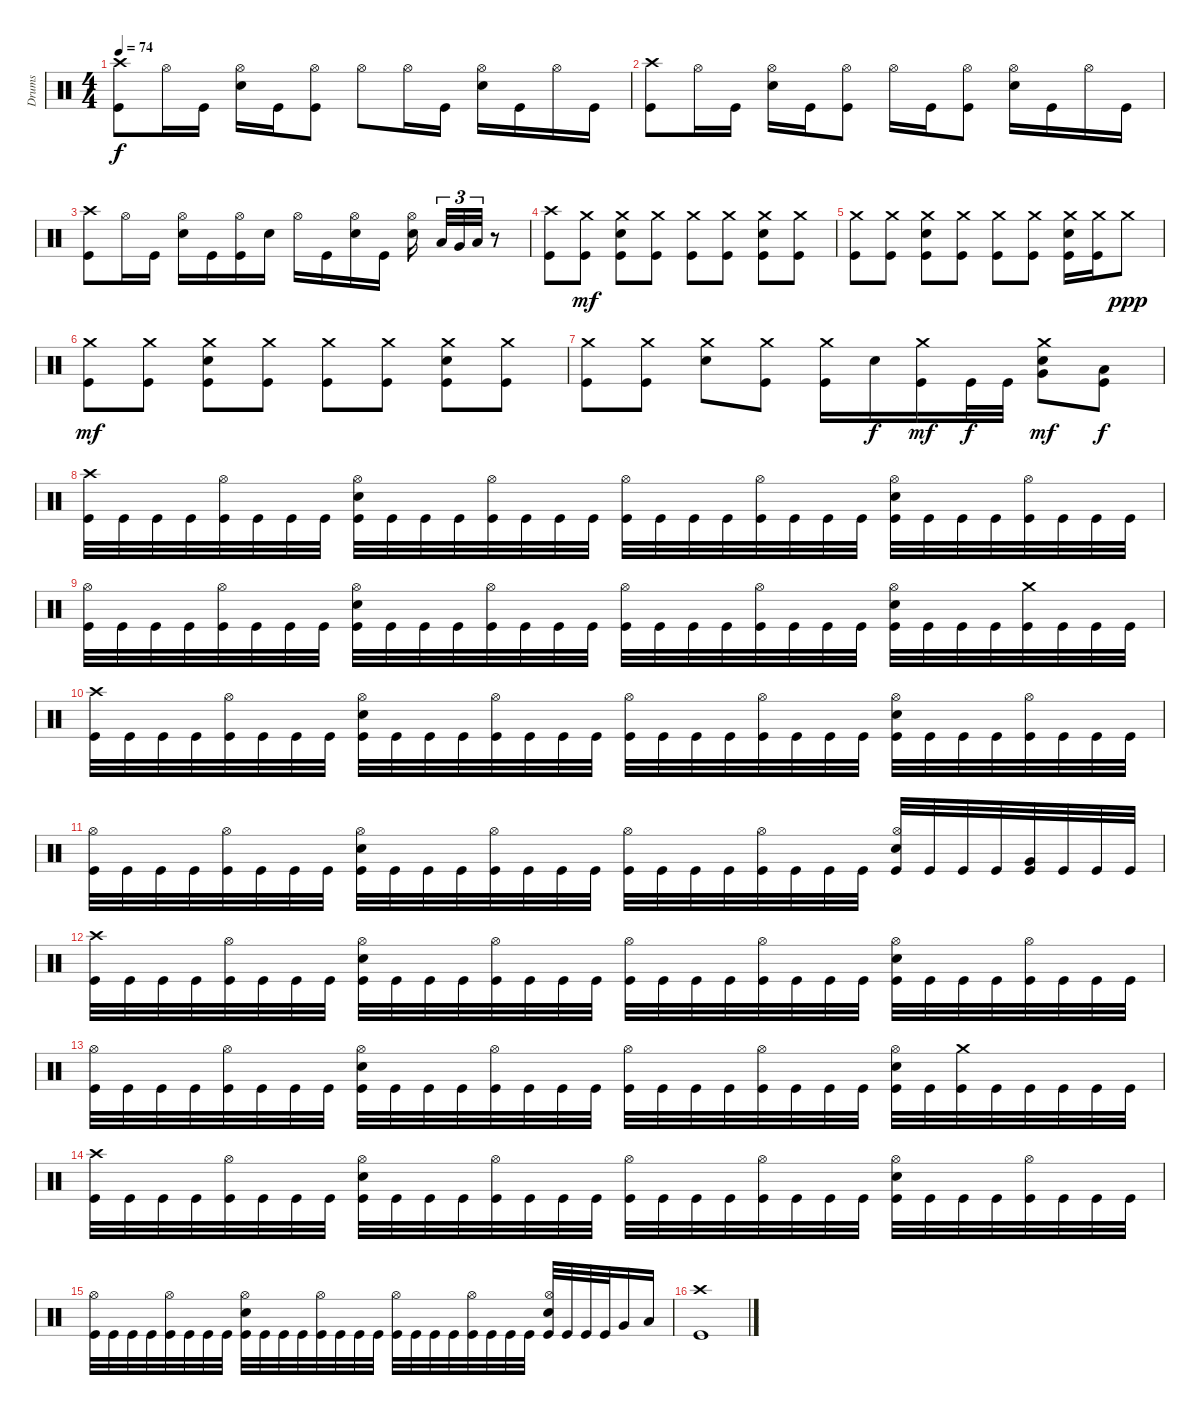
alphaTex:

\track ("Drums" "Drums") {instrument percussion}
\staff {score}
\articulation defaults
\ts (4 4)
\tempo 74
\clef neutral
\ks c
("Crash high (hit)" "Kick (hit)").8{dy f} "Hi-Hat (open)".16 "Kick (hit)".16 ("Hi-Hat (open)" "Snare (hit) 2").16 "Kick (hit)".16 ("Hi-Hat (open)" "Kick (hit)").8 "Hi-Hat (open)".8 "Hi-Hat (open)".16 "Kick (hit)".16 ("Hi-Hat (open)" "Snare (hit) 2").16 "Kick (hit)".16 "Hi-Hat (open)".16 "Kick (hit)".16 |
("Crash high (hit)" "Kick (hit)").8 "Hi-Hat (open)".16 "Kick (hit)".16 ("Hi-Hat (open)" "Snare (hit) 2").16 "Kick (hit)".16 ("Hi-Hat (open)" "Kick (hit)").8 "Hi-Hat (open)".16 "Kick (hit)".16 ("Hi-Hat (open)" "Kick (hit)").8 ("Hi-Hat (open)" "Snare (hit) 2").16 "Kick (hit)".16 "Hi-Hat (open)".16 "Kick (hit)".16 |
("Crash high (hit)" "Kick (hit)").8 "Hi-Hat (open)".16 "Kick (hit)".16 ("Hi-Hat (open)" "Snare (hit) 2").16 "Kick (hit)".16 ("Hi-Hat (open)" "Kick (hit)").16 "Snare (hit) 2".16 "Hi-Hat (open)".16 "Kick (hit)".16 ("Hi-Hat (open)" "Snare (hit) 2").16 "Kick (hit)".16 ("Hi-Hat (open)" "Snare (hit) 2").16 "Low Tom (hit)".32{tu (3 2)} "Very Low Tom (hit)".32{tu (3 2)} "Low Tom (hit)".32{tu (3 2)} r.8 |
\section ("" "")
("Crash high (hit)" "Kick (hit)").8 ("Crash medium (hit)" "Kick (hit)").8{dy mf} ("Crash medium (hit)" "Snare (hit) 2" "Kick (hit)").8 ("Crash medium (hit)" "Kick (hit)").8 ("Crash medium (hit)" "Kick (hit)").8 ("Crash medium (hit)" "Kick (hit)").8 ("Crash medium (hit)" "Snare (hit) 2" "Kick (hit)").8 ("Crash medium (hit)" "Kick (hit)").8 |
("Crash medium (hit)" "Kick (hit)").8 ("Crash medium (hit)" "Kick (hit)").8 ("Crash medium (hit)" "Snare (hit) 2" "Kick (hit)").8 ("Crash medium (hit)" "Kick (hit)").8 ("Crash medium (hit)" "Kick (hit)").8 ("Crash medium (hit)" "Kick (hit)").8 ("Crash medium (hit)" "Snare (hit) 2" "Kick (hit)").16 ("Crash medium (hit)" "Kick (hit)").16 "Crash medium (hit)".8{dy ppp} |
("Crash medium (hit)" "Kick (hit)").8{dy mf} ("Crash medium (hit)" "Kick (hit)").8 ("Crash medium (hit)" "Snare (hit) 2" "Kick (hit)").8 ("Crash medium (hit)" "Kick (hit)").8 ("Crash medium (hit)" "Kick (hit)").8 ("Crash medium (hit)" "Kick (hit)").8 ("Crash medium (hit)" "Snare (hit) 2" "Kick (hit)").8 ("Crash medium (hit)" "Kick (hit)").8 |
("Crash medium (hit)" "Kick (hit)").8 ("Crash medium (hit)" "Kick (hit)").8 ("Crash medium (hit)" "Snare (hit) 2").8 ("Crash medium (hit)" "Kick (hit)").8 ("Crash medium (hit)" "Kick (hit)").16 "Snare (hit) 2".16{dy f} ("Crash medium (hit)" "Kick (hit)").16{dy mf} "Kick (hit)".32{dy f} "Kick (hit)".32 ("Crash medium (hit)" "Very Low Tom (hit)" "Snare (hit) 2").8{dy mf} ("Low Floor Tom (hit)" "Kick (hit)").8{dy f} |
\section ("" "")
("Crash high (hit)" "Kick (hit)").32 "Kick (hit)".32 "Kick (hit)".32 "Kick (hit)".32 ("Hi-Hat (open)" "Kick (hit)").32 "Kick (hit)".32 "Kick (hit)".32 "Kick (hit)".32 ("Hi-Hat (open)" "Snare (hit) 2" "Kick (hit)").32 "Kick (hit)".32 "Kick (hit)".32 "Kick (hit)".32 ("Hi-Hat (open)" "Kick (hit)").32 "Kick (hit)".32 "Kick (hit)".32 "Kick (hit)".32 ("Hi-Hat (open)" "Kick (hit)").32 "Kick (hit)".32 "Kick (hit)".32 "Kick (hit)".32 ("Hi-Hat (open)" "Kick (hit)").32 "Kick (hit)".32 "Kick (hit)".32 "Kick (hit)".32 ("Hi-Hat (open)" "Snare (hit) 2" "Kick (hit)").32 "Kick (hit)".32 "Kick (hit)".32 "Kick (hit)".32 ("Hi-Hat (open)" "Kick (hit)").32 "Kick (hit)".32 "Kick (hit)".32 "Kick (hit)".32 |
("Hi-Hat (open)" "Kick (hit)").32 "Kick (hit)".32 "Kick (hit)".32 "Kick (hit)".32 ("Hi-Hat (open)" "Kick (hit)").32 "Kick (hit)".32 "Kick (hit)".32 "Kick (hit)".32 ("Hi-Hat (open)" "Snare (hit) 2" "Kick (hit)").32 "Kick (hit)".32 "Kick (hit)".32 "Kick (hit)".32 ("Hi-Hat (open)" "Kick (hit)").32 "Kick (hit)".32 "Kick (hit)".32 "Kick (hit)".32 ("Hi-Hat (open)" "Kick (hit)").32 "Kick (hit)".32 "Kick (hit)".32 "Kick (hit)".32 ("Hi-Hat (open)" "Kick (hit)").32 "Kick (hit)".32 "Kick (hit)".32 "Kick (hit)".32 ("Hi-Hat (open)" "Snare (hit) 2" "Kick (hit)").32 "Kick (hit)".32 "Kick (hit)".32 "Kick (hit)".32 ("Crash medium (hit)" "Kick (hit)").32 "Kick (hit)".32 "Kick (hit)".32 "Kick (hit)".32 |
("Crash high (hit)" "Kick (hit)").32 "Kick (hit)".32 "Kick (hit)".32 "Kick (hit)".32 ("Hi-Hat (open)" "Kick (hit)").32 "Kick (hit)".32 "Kick (hit)".32 "Kick (hit)".32 ("Hi-Hat (open)" "Snare (hit) 2" "Kick (hit)").32 "Kick (hit)".32 "Kick (hit)".32 "Kick (hit)".32 ("Hi-Hat (open)" "Kick (hit)").32 "Kick (hit)".32 "Kick (hit)".32 "Kick (hit)".32 ("Hi-Hat (open)" "Kick (hit)").32 "Kick (hit)".32 "Kick (hit)".32 "Kick (hit)".32 ("Hi-Hat (open)" "Kick (hit)").32 "Kick (hit)".32 "Kick (hit)".32 "Kick (hit)".32 ("Hi-Hat (open)" "Snare (hit) 2" "Kick (hit)").32 "Kick (hit)".32 "Kick (hit)".32 "Kick (hit)".32 ("Hi-Hat (open)" "Kick (hit)").32 "Kick (hit)".32 "Kick (hit)".32 "Kick (hit)".32 |
("Hi-Hat (open)" "Kick (hit)").32 "Kick (hit)".32 "Kick (hit)".32 "Kick (hit)".32 ("Hi-Hat (open)" "Kick (hit)").32 "Kick (hit)".32 "Kick (hit)".32 "Kick (hit)".32 ("Hi-Hat (open)" "Snare (hit) 2" "Kick (hit)").32 "Kick (hit)".32 "Kick (hit)".32 "Kick (hit)".32 ("Hi-Hat (open)" "Kick (hit)").32 "Kick (hit)".32 "Kick (hit)".32 "Kick (hit)".32 ("Hi-Hat (open)" "Kick (hit)").32 "Kick (hit)".32 "Kick (hit)".32 "Kick (hit)".32 ("Hi-Hat (open)" "Kick (hit)").32 "Kick (hit)".32 "Kick (hit)".32 "Kick (hit)".32 ("Hi-Hat (open)" "Snare (hit) 2" "Kick (hit)").32 "Kick (hit)".32 "Kick (hit)".32 "Kick (hit)".32 ("Very Low Tom (hit)" "Kick (hit)").32 "Kick (hit)".32 "Kick (hit)".32 "Kick (hit)".32 |
("Crash high (hit)" "Kick (hit)").32 "Kick (hit)".32 "Kick (hit)".32 "Kick (hit)".32 ("Hi-Hat (open)" "Kick (hit)").32 "Kick (hit)".32 "Kick (hit)".32 "Kick (hit)".32 ("Hi-Hat (open)" "Snare (hit) 2" "Kick (hit)").32 "Kick (hit)".32 "Kick (hit)".32 "Kick (hit)".32 ("Hi-Hat (open)" "Kick (hit)").32 "Kick (hit)".32 "Kick (hit)".32 "Kick (hit)".32 ("Hi-Hat (open)" "Kick (hit)").32 "Kick (hit)".32 "Kick (hit)".32 "Kick (hit)".32 ("Hi-Hat (open)" "Kick (hit)").32 "Kick (hit)".32 "Kick (hit)".32 "Kick (hit)".32 ("Hi-Hat (open)" "Snare (hit) 2" "Kick (hit)").32 "Kick (hit)".32 "Kick (hit)".32 "Kick (hit)".32 ("Hi-Hat (open)" "Kick (hit)").32 "Kick (hit)".32 "Kick (hit)".32 "Kick (hit)".32 |
("Hi-Hat (open)" "Kick (hit)").32 "Kick (hit)".32 "Kick (hit)".32 "Kick (hit)".32 ("Hi-Hat (open)" "Kick (hit)").32 "Kick (hit)".32 "Kick (hit)".32 "Kick (hit)".32 ("Hi-Hat (open)" "Snare (hit) 2" "Kick (hit)").32 "Kick (hit)".32 "Kick (hit)".32 "Kick (hit)".32 ("Hi-Hat (open)" "Kick (hit)").32 "Kick (hit)".32 "Kick (hit)".32 "Kick (hit)".32 ("Hi-Hat (open)" "Kick (hit)").32 "Kick (hit)".32 "Kick (hit)".32 "Kick (hit)".32 ("Hi-Hat (open)" "Kick (hit)").32 "Kick (hit)".32 "Kick (hit)".32 "Kick (hit)".32 ("Hi-Hat (open)" "Snare (hit) 2" "Kick (hit)").32 "Kick (hit)".32 ("Crash medium (hit)" "Kick (hit)").32 "Kick (hit)".32 "Kick (hit)".32 "Kick (hit)".32 "Kick (hit)".32 "Kick (hit)".32 |
("Crash high (hit)" "Kick (hit)").32 "Kick (hit)".32 "Kick (hit)".32 "Kick (hit)".32 ("Hi-Hat (open)" "Kick (hit)").32 "Kick (hit)".32 "Kick (hit)".32 "Kick (hit)".32 ("Hi-Hat (open)" "Snare (hit) 2" "Kick (hit)").32 "Kick (hit)".32 "Kick (hit)".32 "Kick (hit)".32 ("Hi-Hat (open)" "Kick (hit)").32 "Kick (hit)".32 "Kick (hit)".32 "Kick (hit)".32 ("Hi-Hat (open)" "Kick (hit)").32 "Kick (hit)".32 "Kick (hit)".32 "Kick (hit)".32 ("Hi-Hat (open)" "Kick (hit)").32 "Kick (hit)".32 "Kick (hit)".32 "Kick (hit)".32 ("Hi-Hat (open)" "Snare (hit) 2" "Kick (hit)").32 "Kick (hit)".32 "Kick (hit)".32 "Kick (hit)".32 ("Hi-Hat (open)" "Kick (hit)").32 "Kick (hit)".32 "Kick (hit)".32 "Kick (hit)".32 |
("Hi-Hat (open)" "Kick (hit)").32 "Kick (hit)".32 "Kick (hit)".32 "Kick (hit)".32 ("Hi-Hat (open)" "Kick (hit)").32 "Kick (hit)".32 "Kick (hit)".32 "Kick (hit)".32 ("Hi-Hat (open)" "Snare (hit) 2" "Kick (hit)").32 "Kick (hit)".32 "Kick (hit)".32 "Kick (hit)".32 ("Hi-Hat (open)" "Kick (hit)").32 "Kick (hit)".32 "Kick (hit)".32 "Kick (hit)".32 ("Hi-Hat (open)" "Kick (hit)").32 "Kick (hit)".32 "Kick (hit)".32 "Kick (hit)".32 ("Hi-Hat (open)" "Kick (hit)").32 "Kick (hit)".32 "Kick (hit)".32 "Kick (hit)".32 ("Hi-Hat (open)" "Snare (hit) 2" "Kick (hit)").32 "Kick (hit)".32 "Kick (hit)".32 "Kick (hit)".32 "Very Low Tom (hit)".16 "Low Floor Tom (hit)".16 |
\section ("" "")
("Crash high (hit)" "Kick (hit)").1
